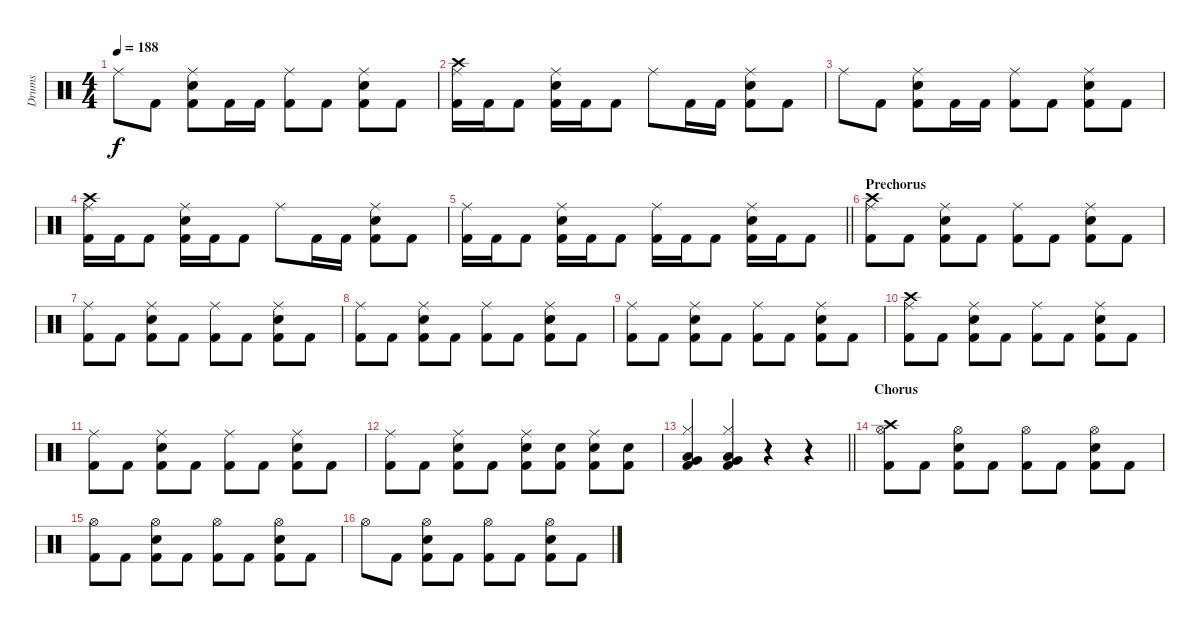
\track ("Drums" "Drums") {instrument percussion}
\staff {score}
\articulation defaults
\ts (4 4)
\tempo 188
\clef neutral
\ks c "Ride (middle)".8{dy f} "Kick (hit) 2".8
("Ride (middle)" "Snare (hit) 2" "Kick (hit) 2").8 "Kick (hit) 2".16 "Kick (hit) 2".16 ("Ride (middle)" "Kick (hit) 2").8 "Kick (hit) 2".8 ("Ride (middle)" "Snare (hit) 2" "Kick (hit) 2").8 "Kick (hit) 2".8 |
("Crash high (hit)" "Ride (middle)" "Kick (hit) 2").16 "Kick (hit) 2".16 "Kick (hit) 2".8 ("Ride (middle)" "Snare (hit) 2" "Kick (hit) 2").16 "Kick (hit) 2".16 "Kick (hit) 2".8 "Ride (middle)".8 "Kick (hit) 2".16 "Kick (hit) 2".16 ("Ride (middle)" "Snare (hit) 2" "Kick (hit) 2").8 "Kick (hit) 2".8 |
"Ride (middle)".8 "Kick (hit) 2".8 ("Ride (middle)" "Snare (hit) 2" "Kick (hit) 2").8 "Kick (hit) 2".16 "Kick (hit) 2".16 ("Ride (middle)" "Kick (hit) 2").8 "Kick (hit) 2".8 ("Ride (middle)" "Snare (hit) 2" "Kick (hit) 2").8 "Kick (hit) 2".8 |
("Crash high (hit)" "Ride (middle)" "Kick (hit) 2").16 "Kick (hit) 2".16 "Kick (hit) 2".8 ("Ride (middle)" "Snare (hit) 2" "Kick (hit) 2").16 "Kick (hit) 2".16 "Kick (hit) 2".8 "Ride (middle)".8 "Kick (hit) 2".16 "Kick (hit) 2".16 ("Ride (middle)" "Snare (hit) 2" "Kick (hit) 2").8 "Kick (hit) 2".8 |
\barLineRight lightlight
("Ride (middle)" "Kick (hit) 2").16 "Kick (hit) 2".16 "Kick (hit) 2".8 ("Ride (middle)" "Snare (hit) 2" "Kick (hit) 2").16 "Kick (hit) 2".16 "Kick (hit) 2".8 ("Ride (middle)" "Kick (hit) 2").16 "Kick (hit) 2".16 "Kick (hit) 2".8 ("Ride (middle)" "Snare (hit) 2" "Kick (hit) 2").16 "Kick (hit) 2".16 "Kick (hit) 2".8 |
\section ("" "Prechorus")
("Crash high (hit)" "Ride (middle)" "Kick (hit) 2").8 "Kick (hit) 2".8 ("Ride (middle)" "Snare (hit) 2" "Kick (hit) 2").8 "Kick (hit) 2".8 ("Ride (middle)" "Kick (hit) 2").8 "Kick (hit) 2".8 ("Ride (middle)" "Snare (hit) 2" "Kick (hit) 2").8 "Kick (hit) 2".8 |
("Ride (middle)" "Kick (hit) 2").8 "Kick (hit) 2".8 ("Ride (middle)" "Snare (hit) 2" "Kick (hit) 2").8 "Kick (hit) 2".8 ("Ride (middle)" "Kick (hit) 2").8 "Kick (hit) 2".8 ("Ride (middle)" "Snare (hit) 2" "Kick (hit) 2").8 "Kick (hit) 2".8 |
("Ride (middle)" "Kick (hit) 2").8 "Kick (hit) 2".8 ("Ride (middle)" "Snare (hit) 2" "Kick (hit) 2").8 "Kick (hit) 2".8 ("Ride (middle)" "Kick (hit) 2").8 "Kick (hit) 2".8 ("Ride (middle)" "Snare (hit) 2" "Kick (hit) 2").8 "Kick (hit) 2".8 |
("Ride (middle)" "Kick (hit) 2").8 "Kick (hit) 2".8 ("Ride (middle)" "Snare (hit) 2" "Kick (hit) 2").8 "Kick (hit) 2".8 ("Ride (middle)" "Kick (hit) 2").8 "Kick (hit) 2".8 ("Ride (middle)" "Snare (hit) 2" "Kick (hit) 2").8 "Kick (hit) 2".8 |
("Crash high (hit)" "Ride (middle)" "Kick (hit) 2").8 "Kick (hit) 2".8 ("Ride (middle)" "Snare (hit) 2" "Kick (hit) 2").8 "Kick (hit) 2".8 ("Ride (middle)" "Kick (hit) 2").8 "Kick (hit) 2".8 ("Ride (middle)" "Snare (hit) 2" "Kick (hit) 2").8 "Kick (hit) 2".8 |
("Ride (middle)" "Kick (hit) 2").8 "Kick (hit) 2".8 ("Ride (middle)" "Snare (hit) 2" "Kick (hit) 2").8 "Kick (hit) 2".8 ("Ride (middle)" "Kick (hit) 2").8 "Kick (hit) 2".8 ("Ride (middle)" "Snare (hit) 2" "Kick (hit) 2").8 "Kick (hit) 2".8 |
("Ride (middle)" "Kick (hit) 2").8 "Kick (hit) 2".8 ("Ride (middle)" "Snare (hit) 2" "Kick (hit) 2").8 "Kick (hit) 2".8 ("Ride (middle)" "Snare (hit) 2" "Kick (hit) 2").8 ("Snare (hit) 2" "Kick (hit) 2").8 ("Ride (middle)" "Snare (hit) 2" "Kick (hit) 2").8 ("Snare (hit) 2" "Kick (hit) 2").8 |
\barLineRight lightlight
("Hi-Hat (closed)" "Very Low Tom (hit)" "Low Floor Tom (hit)" "Kick (hit) 2").4 ("Hi-Hat (closed)" "Very Low Tom (hit)" "Low Floor Tom (hit)" "Kick (hit) 2").4 r.4 r.4 |
\section ("" "Chorus")
("Crash high (hit)" "Hi-Hat (open)" "Kick (hit) 2").8 "Kick (hit) 2".8 ("Hi-Hat (open)" "Snare (hit) 2" "Kick (hit) 2").8 "Kick (hit) 2".8 ("Hi-Hat (open)" "Kick (hit) 2").8 "Kick (hit) 2".8 ("Hi-Hat (open)" "Snare (hit) 2" "Kick (hit) 2").8 "Kick (hit) 2".8 |
("Hi-Hat (open)" "Kick (hit) 2").8 "Kick (hit) 2".8 ("Hi-Hat (open)" "Snare (hit) 2" "Kick (hit) 2").8 "Kick (hit) 2".8 ("Hi-Hat (open)" "Kick (hit) 2").8 "Kick (hit) 2".8 ("Hi-Hat (open)" "Snare (hit) 2" "Kick (hit) 2").8 "Kick (hit) 2".8 |
"Hi-Hat (open)".8 "Kick (hit) 2".8 ("Hi-Hat (open)" "Snare (hit) 2" "Kick (hit) 2").8 "Kick (hit) 2".8 ("Hi-Hat (open)" "Kick (hit) 2").8 "Kick (hit) 2".8 ("Hi-Hat (open)" "Snare (hit) 2" "Kick (hit) 2").8 "Kick (hit) 2".8
